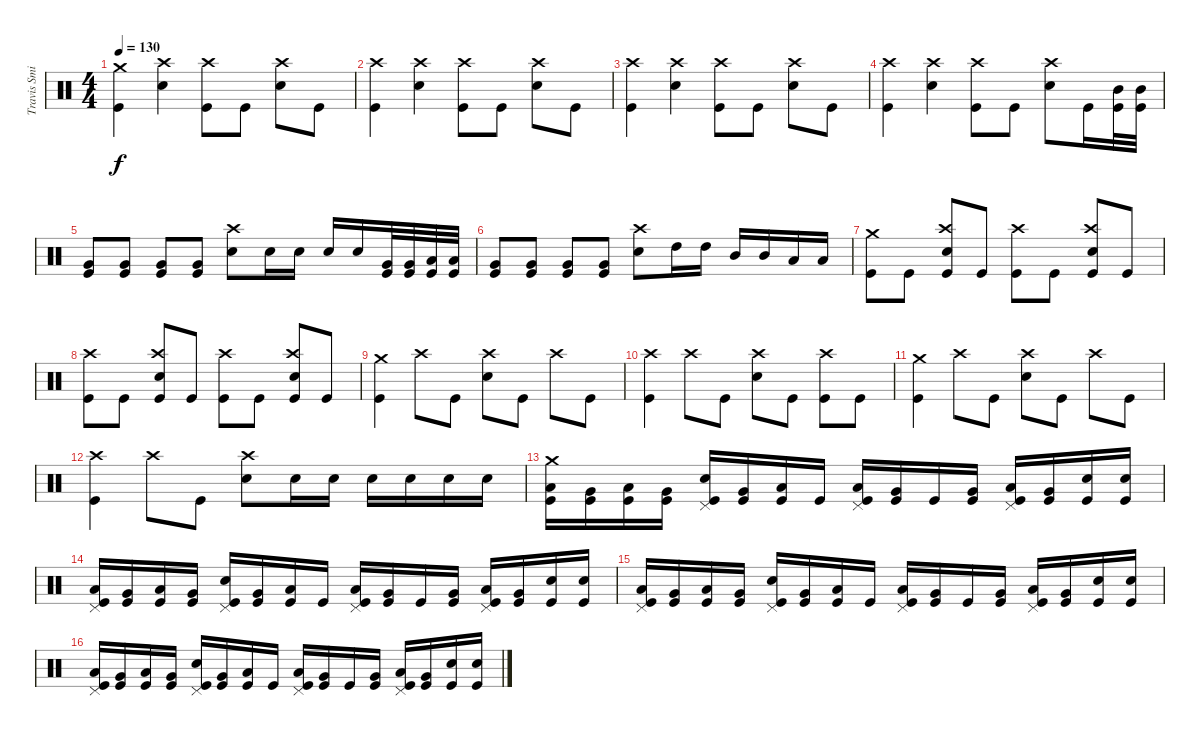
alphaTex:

\track ("Travis Smith" "Travis Smi") {instrument percussion}
\staff {score}
\articulation defaults
\ts (4 4)
\tempo 130
\clef neutral
\ks c
("Crash medium (hit)" "Kick (hit)").4{dy f} ("Crash high (hit)" "Snare (hit) 2").4 ("Crash high (hit)" "Kick (hit)").8 "Kick (hit)".8 ("Crash high (hit)" "Snare (hit) 2").8 "Kick (hit)".8 |
("Crash high (hit)" "Kick (hit)").4 ("Crash high (hit)" "Snare (hit) 2").4 ("Crash high (hit)" "Kick (hit)").8 "Kick (hit)".8 ("Crash high (hit)" "Snare (hit) 2").8 "Kick (hit)".8 |
("Crash high (hit)" "Kick (hit)").4 ("Crash high (hit)" "Snare (hit) 2").4 ("Crash high (hit)" "Kick (hit)").8 "Kick (hit)".8 ("Crash high (hit)" "Snare (hit) 2").8 "Kick (hit)".8 |
("Crash high (hit)" "Kick (hit)").4 ("Crash high (hit)" "Snare (hit) 2").4 ("Crash high (hit)" "Kick (hit)").8 "Kick (hit)".8 ("Crash high (hit)" "Snare (hit) 2").8 "Kick (hit)".16 ("Mid Tom (hit)" "Kick (hit)").32 ("Mid Tom (hit)" "Kick (hit)").32 |
("Very Low Tom (hit)" "Kick (hit)").8 ("Very Low Tom (hit)" "Kick (hit)").8 ("Very Low Tom (hit)" "Kick (hit)").8 ("Very Low Tom (hit)" "Kick (hit)").8 ("Crash high (hit)" "Snare (hit) 2").8 "Snare (hit) 2".16 "Snare (hit) 2".16 "Snare (hit) 2".16 "Snare (hit) 2".16 ("Very Low Tom (hit)" "Kick (hit)").32 ("Very Low Tom (hit)" "Kick (hit)").32 ("Low Floor Tom (hit)" "Kick (hit)").32 ("Low Floor Tom (hit)" "Kick (hit)").32 |
("Very Low Tom (hit)" "Kick (hit)").8 ("Very Low Tom (hit)" "Kick (hit)").8 ("Very Low Tom (hit)" "Kick (hit)").8 ("Very Low Tom (hit)" "Kick (hit)").8 ("Crash high (hit)" "Snare (hit) 2").8 "High Tom (hit)".16 "High Tom (hit)".16 "Mid Tom (hit)".16 "Mid Tom (hit)".16 "Low Tom (hit)".16 "Low Tom (hit)".16 |
("Crash medium (hit)" "Kick (hit)").8 "Kick (hit)".8 ("Crash high (hit)" "Snare (hit) 2" "Kick (hit)").8 "Kick (hit)".8 ("Crash high (hit)" "Kick (hit)").8 "Kick (hit)".8 ("Crash high (hit)" "Snare (hit) 2" "Kick (hit)").8 "Kick (hit)".8 |
("Crash high (hit)" "Kick (hit)").8 "Kick (hit)".8 ("Crash high (hit)" "Snare (hit) 2" "Kick (hit)").8 "Kick (hit)".8 ("Crash high (hit)" "Kick (hit)").8 "Kick (hit)".8 ("Crash high (hit)" "Snare (hit) 2" "Kick (hit)").8 "Kick (hit)".8 |
("Crash medium (hit)" "Kick (hit)").4 "Crash high (hit)".8 "Kick (hit)".8 ("Crash high (hit)" "Snare (hit) 2").8 "Kick (hit)".8 "Crash high (hit)".8 "Kick (hit)".8 |
("Crash high (hit)" "Kick (hit)").4 "Crash high (hit)".8 "Kick (hit)".8 ("Crash high (hit)" "Snare (hit) 2").8 "Kick (hit)".8 ("Crash high (hit)" "Kick (hit)").8 "Kick (hit)".8 |
("Crash medium (hit)" "Kick (hit)").4 "Crash high (hit)".8 "Kick (hit)".8 ("Crash high (hit)" "Snare (hit) 2").8 "Kick (hit)".8 "Crash high (hit)".8 "Kick (hit)".8 |
("Crash high (hit)" "Kick (hit)").4 "Crash high (hit)".8 "Kick (hit)".8 ("Crash high (hit)" "Snare (hit) 2").8 "Snare (hit) 2".16 "Snare (hit) 2".16 "Snare (hit) 2".16 "Snare (hit) 2".16 "Snare (hit) 2".16 "Snare (hit) 2".16 |
("Crash medium (hit)" "Low Tom (hit)" "Kick (hit)").16 ("Very Low Tom (hit)" "Kick (hit)").16 ("Low Tom (hit)" "Kick (hit)").16 ("Very Low Tom (hit)" "Kick (hit)").16 ("Pedal Hi-Hat (hit)" "Snare (hit) 2" "Kick (hit)").16 ("Very Low Tom (hit)" "Kick (hit)").16 ("Low Tom (hit)" "Kick (hit)").16 "Kick (hit)".16 ("Pedal Hi-Hat (hit)" "Low Tom (hit)" "Kick (hit)").16 ("Very Low Tom (hit)" "Kick (hit)").16 "Kick (hit)".16 ("Very Low Tom (hit)" "Kick (hit)").16 ("Pedal Hi-Hat (hit)" "Low Tom (hit)" "Kick (hit)").16 ("Very Low Tom (hit)" "Kick (hit)").16 ("Snare (hit) 2" "Kick (hit)").16 ("Snare (hit) 2" "Kick (hit)").16 |
("Pedal Hi-Hat (hit)" "Low Tom (hit)" "Kick (hit)").16 ("Very Low Tom (hit)" "Kick (hit)").16 ("Low Tom (hit)" "Kick (hit)").16 ("Very Low Tom (hit)" "Kick (hit)").16 ("Pedal Hi-Hat (hit)" "Snare (hit) 2" "Kick (hit)").16 ("Very Low Tom (hit)" "Kick (hit)").16 ("Low Tom (hit)" "Kick (hit)").16 "Kick (hit)".16 ("Pedal Hi-Hat (hit)" "Low Tom (hit)" "Kick (hit)").16 ("Very Low Tom (hit)" "Kick (hit)").16 "Kick (hit)".16 ("Very Low Tom (hit)" "Kick (hit)").16 ("Pedal Hi-Hat (hit)" "Low Tom (hit)" "Kick (hit)").16 ("Very Low Tom (hit)" "Kick (hit)").16 ("Snare (hit) 2" "Kick (hit)").16 ("Snare (hit) 2" "Kick (hit)").16 |
("Pedal Hi-Hat (hit)" "Low Tom (hit)" "Kick (hit)").16 ("Very Low Tom (hit)" "Kick (hit)").16 ("Low Tom (hit)" "Kick (hit)").16 ("Very Low Tom (hit)" "Kick (hit)").16 ("Pedal Hi-Hat (hit)" "Snare (hit) 2" "Kick (hit)").16 ("Very Low Tom (hit)" "Kick (hit)").16 ("Low Tom (hit)" "Kick (hit)").16 "Kick (hit)".16 ("Pedal Hi-Hat (hit)" "Low Tom (hit)" "Kick (hit)").16 ("Very Low Tom (hit)" "Kick (hit)").16 "Kick (hit)".16 ("Very Low Tom (hit)" "Kick (hit)").16 ("Pedal Hi-Hat (hit)" "Low Tom (hit)" "Kick (hit)").16 ("Very Low Tom (hit)" "Kick (hit)").16 ("Snare (hit) 2" "Kick (hit)").16 ("Snare (hit) 2" "Kick (hit)").16 |
("Pedal Hi-Hat (hit)" "Low Tom (hit)" "Kick (hit)").16 ("Very Low Tom (hit)" "Kick (hit)").16 ("Low Tom (hit)" "Kick (hit)").16 ("Very Low Tom (hit)" "Kick (hit)").16 ("Pedal Hi-Hat (hit)" "Snare (hit) 2" "Kick (hit)").16 ("Very Low Tom (hit)" "Kick (hit)").16 ("Low Tom (hit)" "Kick (hit)").16 "Kick (hit)".16 ("Pedal Hi-Hat (hit)" "Low Tom (hit)" "Kick (hit)").16 ("Very Low Tom (hit)" "Kick (hit)").16 "Kick (hit)".16 ("Very Low Tom (hit)" "Kick (hit)").16 ("Pedal Hi-Hat (hit)" "Low Tom (hit)" "Kick (hit)").16 ("Very Low Tom (hit)" "Kick (hit)").16 ("Snare (hit) 2" "Kick (hit)").16 ("Snare (hit) 2" "Kick (hit)").16
